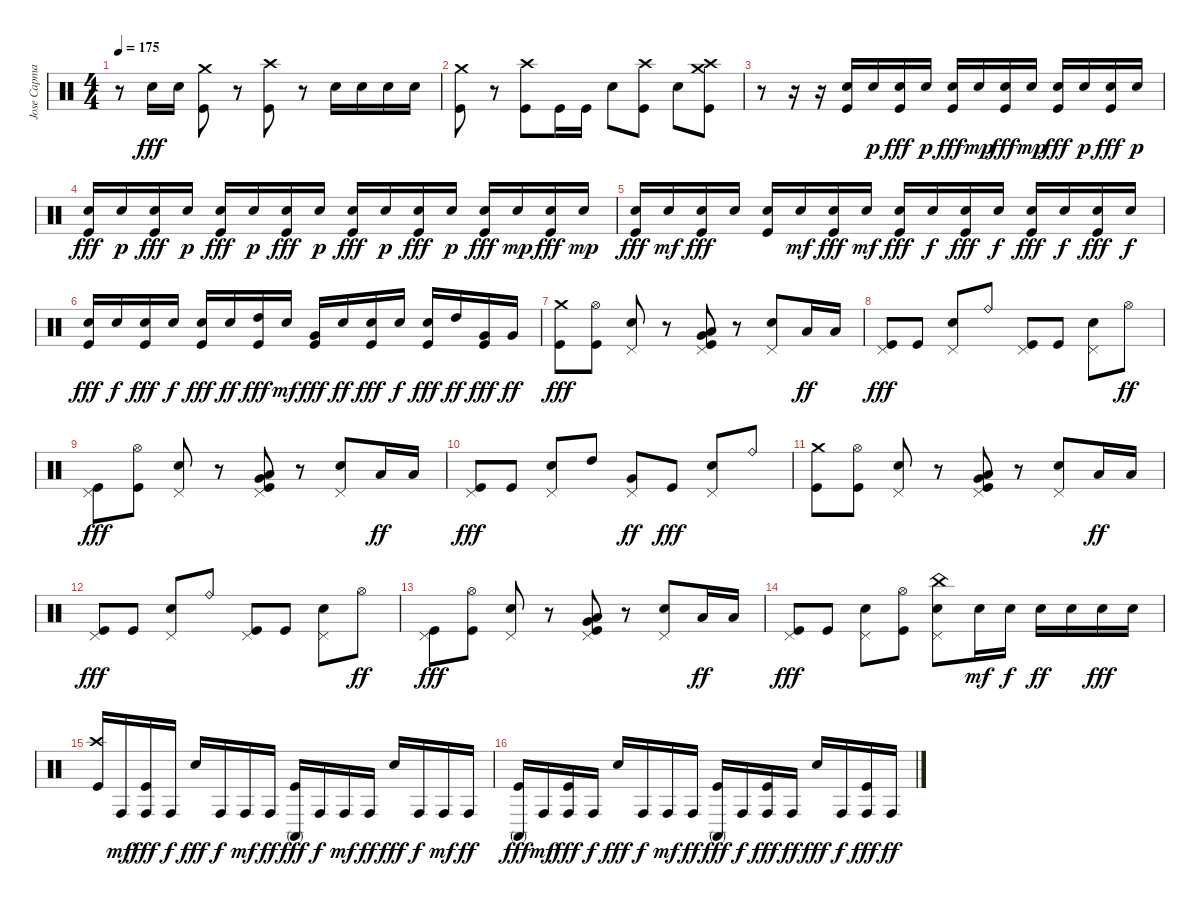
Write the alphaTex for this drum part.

\track ("Jose Capmany" "Jose Capma") {instrument percussion}
\staff {score}
\articulation defaults
\ts (4 4)
\tempo 175
\clef neutral
\ks c
r.8{dy fff} "Snare (hit) 2".16 "Snare (hit) 2".16 ("Crash medium (hit)" "Kick (hit)").8 r.8 ("Crash high (hit)" "Kick (hit)").8 r.8 "Snare (hit) 2".16 "Snare (hit) 2".16 "Snare (hit) 2".16 "Snare (hit) 2".16 |
("Crash medium (hit)" "Kick (hit)").8 r.8 ("Crash high (hit)" "Kick (hit)").8 "Kick (hit)".16 "Kick (hit)".16 "Snare (hit) 2".8 ("Crash high (hit)" "Kick (hit)").8 "Snare (hit) 2".8 ("Crash medium (hit)" "Crash high (hit)" "Kick (hit)").8 |
r.8 r.16 r.16 ("Snare (hit) 2" "Kick (hit)").16 "Snare (hit) 2".16{dy p} ("Snare (hit) 2" "Kick (hit)").16{dy fff} "Snare (hit) 2".16{dy p} ("Snare (hit) 2" "Kick (hit)").16{dy fff} "Snare (hit) 2".16{dy mp} ("Snare (hit) 2" "Kick (hit)").16{dy fff} "Snare (hit) 2".16{dy mp} ("Snare (hit) 2" "Kick (hit)").16{dy fff} "Snare (hit) 2".16{dy p} ("Snare (hit) 2" "Kick (hit)").16{dy fff} "Snare (hit) 2".16{dy p} |
("Snare (hit) 2" "Kick (hit)").16{dy fff} "Snare (hit) 2".16{dy p} ("Snare (hit) 2" "Kick (hit)").16{dy fff} "Snare (hit) 2".16{dy p} ("Snare (hit) 2" "Kick (hit)").16{dy fff} "Snare (hit) 2".16{dy p} ("Snare (hit) 2" "Kick (hit)").16{dy fff} "Snare (hit) 2".16{dy p} ("Snare (hit) 2" "Kick (hit)").16{dy fff} "Snare (hit) 2".16{dy p} ("Snare (hit) 2" "Kick (hit)").16{dy fff} "Snare (hit) 2".16{dy p} ("Snare (hit) 2" "Kick (hit)").16{dy fff} "Snare (hit) 2".16{dy mp} ("Snare (hit) 2" "Kick (hit)").16{dy fff} "Snare (hit) 2".16{dy mp} |
("Electric Snare (hit)" "Kick (hit)").16{dy fff} "Snare (hit) 2".16{dy mf} ("Snare (hit) 2" "Kick (hit)").16{dy fff} "Electric Snare (hit)".16 ("Snare (hit) 2" "Kick (hit)").16 "Snare (hit) 2".16{dy mf} ("Electric Snare (hit)" "Kick (hit)").16{dy fff} "Snare (hit) 2".16{dy mf} ("Snare (hit) 2" "Kick (hit)").16{dy fff} "Snare (hit) 2".16{dy f} ("Snare (hit) 2" "Kick (hit)").16{dy fff} "Snare (hit) 2".16{dy f} ("Snare (hit) 2" "Kick (hit)").16{dy fff} "Snare (hit) 2".16{dy f} ("Snare (hit) 2" "Kick (hit)").16{dy fff} "Snare (hit) 2".16{dy f} |
("Snare (hit) 2" "Kick (hit)").16{dy fff} "Snare (hit) 2".16{dy f} ("Snare (hit) 2" "Kick (hit)").16{dy fff} "Snare (hit) 2".16{dy f} ("Snare (hit) 2" "Kick (hit)").16{dy fff} "Snare (hit) 2".16{dy ff} ("High Tom (hit)" "Kick (hit)").16{dy fff} "Snare (hit) 2".16{dy mf} ("Very Low Tom (hit)" "Kick (hit)").16{dy fff} "Snare (hit) 2".16{dy ff} ("Snare (hit) 2" "Kick (hit)").16{dy fff} "Snare (hit) 2".16{dy f} ("Snare (hit) 2" "Kick (hit)").16{dy fff} "High Tom (hit)".16{dy ff} ("Very Low Tom (hit)" "Kick (hit)").16{dy fff} "Very Low Tom (hit)".16{dy ff} |
("Crash medium (hit)" "Kick (hit)").8{dy fff} ("Hi-Hat (open)" "Kick (hit)").8 ("Pedal Hi-Hat (hit)" "Snare (hit) 2").8 r.8 ("Pedal Hi-Hat (hit)" "Very Low Tom (hit)" "Low Floor Tom (hit)" "Kick (hit)").8 r.8 ("Pedal Hi-Hat (hit)" "Snare (hit) 2").8 "Low Floor Tom (hit)".16{dy ff} "Low Floor Tom (hit)".16 |
("Pedal Hi-Hat (hit)" "Kick (hit)").8{dy fff} "Kick (hit)".8 ("Pedal Hi-Hat (hit)" "Snare (hit) 2").8 "Ride (bell)".8 ("Pedal Hi-Hat (hit)" "Kick (hit)").8 "Kick (hit)".8 ("Pedal Hi-Hat (hit)" "Snare (hit) 2").8 "Hi-Hat (open)".8{dy ff} |
("Pedal Hi-Hat (hit)" "Kick (hit)").8{dy fff} ("Hi-Hat (open)" "Kick (hit)").8 ("Pedal Hi-Hat (hit)" "Snare (hit) 2").8 r.8 ("Pedal Hi-Hat (hit)" "Very Low Tom (hit)" "Low Floor Tom (hit)" "Kick (hit)").8 r.8 ("Pedal Hi-Hat (hit)" "Snare (hit) 2").8 "Low Floor Tom (hit)".16{dy ff} "Low Floor Tom (hit)".16 |
("Pedal Hi-Hat (hit)" "Kick (hit)").8{dy fff} "Kick (hit)".8 ("Pedal Hi-Hat (hit)" "Snare (hit) 2").8 "High Tom (hit)".8 ("Pedal Hi-Hat (hit)" "Very Low Tom (hit)").8{dy ff} "Kick (hit)".8{dy fff} ("Pedal Hi-Hat (hit)" "Snare (hit) 2").8 "Ride (bell)".8 |
("Crash medium (hit)" "Kick (hit)").8 ("Hi-Hat (open)" "Kick (hit)").8 ("Pedal Hi-Hat (hit)" "Snare (hit) 2").8 r.8 ("Pedal Hi-Hat (hit)" "Very Low Tom (hit)" "Low Floor Tom (hit)" "Kick (hit)").8 r.8 ("Pedal Hi-Hat (hit)" "Snare (hit) 2").8 "Low Floor Tom (hit)".16{dy ff} "Low Floor Tom (hit)".16 |
("Pedal Hi-Hat (hit)" "Kick (hit)").8{dy fff} "Kick (hit)".8 ("Pedal Hi-Hat (hit)" "Snare (hit) 2").8 "Ride (bell)".8 ("Pedal Hi-Hat (hit)" "Kick (hit)").8 "Kick (hit)".8 ("Pedal Hi-Hat (hit)" "Snare (hit) 2").8 "Hi-Hat (open)".8{dy ff} |
("Pedal Hi-Hat (hit)" "Kick (hit)").8{dy fff} ("Hi-Hat (open)" "Kick (hit)").8 ("Pedal Hi-Hat (hit)" "Snare (hit) 2").8 r.8 ("Pedal Hi-Hat (hit)" "Very Low Tom (hit)" "Low Floor Tom (hit)" "Kick (hit)").8 r.8 ("Pedal Hi-Hat (hit)" "Snare (hit) 2").8 "Low Floor Tom (hit)".16{dy ff} "Low Floor Tom (hit)".16 |
("Pedal Hi-Hat (hit)" "Kick (hit)").8{dy fff} "Kick (hit)".8 ("Pedal Hi-Hat (hit)" "Snare (hit) 2").8 ("Hi-Hat (open)" "Kick (hit)").8 ("China (hit)" "Snare (hit) 2" "Pedal Hi-Hat (hit)").8 "Snare (hit) 2".16{dy mf} "Snare (hit) 2".16{dy f} "Snare (hit) 2".16{dy ff} "Snare (hit) 2".16 "Snare (hit) 2".16{dy fff} "Snare (hit) 2".16 |
("Crash high (hit)" "Kick (hit)").16 "Conga high (hit)".16{dy mf} ("Conga high (hit)" "Kick (hit)").16{dy fff} "Conga high (hit)".16{dy f} "Snare (hit) 2".16{dy fff} "Conga high (hit)".16{dy f} "Conga high (hit)".16{dy mf} "Conga high (hit)".16{dy ff} ("Conga high (mute)" "Kick (hit)").16{dy fff} "Conga high (hit)".16{dy f} "Conga high (hit)".16{dy mf} "Conga high (hit)".16{dy ff} "Snare (hit) 2".16{dy fff} "Conga high (hit)".16{dy f} "Conga high (hit)".16{dy mf} "Conga high (hit)".16{dy ff} |
("Conga high (mute)" "Kick (hit)").16{dy fff} "Conga high (hit)".16{dy mf} ("Conga high (hit)" "Kick (hit)").16{dy fff} "Conga high (hit)".16{dy f} "Snare (hit) 2".16{dy fff} "Conga high (hit)".16{dy f} "Conga high (hit)".16{dy mf} "Conga high (hit)".16{dy ff} ("Conga high (mute)" "Kick (hit)").16{dy fff} "Conga high (hit)".16{dy f} ("Conga high (hit)" "Kick (hit)").16{dy fff} "Conga high (hit)".16{dy ff} "Snare (hit) 2".16{dy fff} "Conga high (hit)".16{dy f} ("Conga high (hit)" "Kick (hit)").16{dy fff} "Conga high (hit)".16{dy ff}
